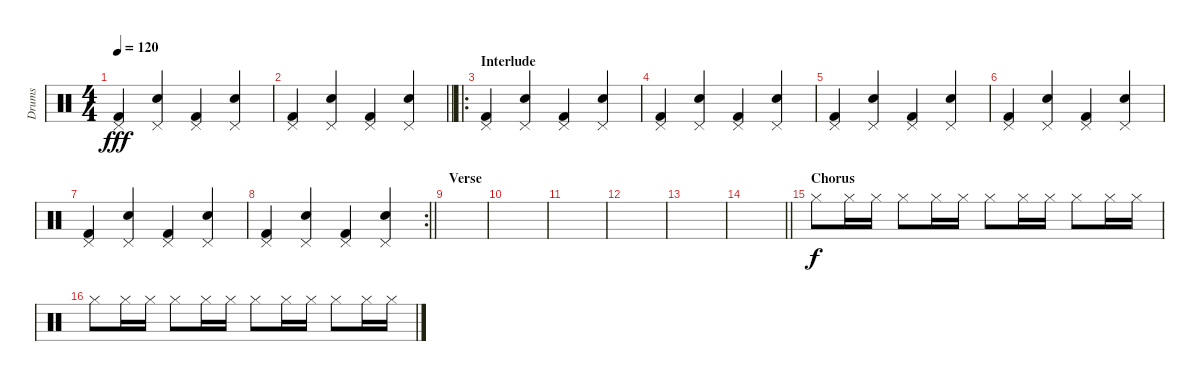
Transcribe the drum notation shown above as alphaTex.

\track ("Drums" "Drums") {instrument percussion}
\staff {score}
\articulation defaults
\ts (4 4)
\tempo 120
\clef neutral
\ks c
("Pedal Hi-Hat (hit)" "Kick (hit) 2").4{dy fff} ("Pedal Hi-Hat (hit)" "Electric Snare (hit)").4 ("Pedal Hi-Hat (hit)" "Kick (hit) 2").4 ("Pedal Hi-Hat (hit)" "Electric Snare (hit)").4 |
\barLineRight lightlight
("Pedal Hi-Hat (hit)" "Kick (hit) 2").4 ("Pedal Hi-Hat (hit)" "Electric Snare (hit)").4 ("Pedal Hi-Hat (hit)" "Kick (hit) 2").4 ("Pedal Hi-Hat (hit)" "Electric Snare (hit)").4 |
\ro
\section ("" "Interlude")
("Pedal Hi-Hat (hit)" "Kick (hit) 2").4 ("Pedal Hi-Hat (hit)" "Electric Snare (hit)").4 ("Pedal Hi-Hat (hit)" "Kick (hit) 2").4 ("Pedal Hi-Hat (hit)" "Electric Snare (hit)").4 |
("Pedal Hi-Hat (hit)" "Kick (hit) 2").4 ("Pedal Hi-Hat (hit)" "Electric Snare (hit)").4 ("Pedal Hi-Hat (hit)" "Kick (hit) 2").4 ("Pedal Hi-Hat (hit)" "Electric Snare (hit)").4 |
("Pedal Hi-Hat (hit)" "Kick (hit) 2").4 ("Pedal Hi-Hat (hit)" "Electric Snare (hit)").4 ("Pedal Hi-Hat (hit)" "Kick (hit) 2").4 ("Pedal Hi-Hat (hit)" "Electric Snare (hit)").4 |
("Pedal Hi-Hat (hit)" "Kick (hit) 2").4 ("Pedal Hi-Hat (hit)" "Electric Snare (hit)").4 ("Pedal Hi-Hat (hit)" "Kick (hit) 2").4 ("Pedal Hi-Hat (hit)" "Electric Snare (hit)").4 |
("Pedal Hi-Hat (hit)" "Kick (hit) 2").4 ("Pedal Hi-Hat (hit)" "Electric Snare (hit)").4 ("Pedal Hi-Hat (hit)" "Kick (hit) 2").4 ("Pedal Hi-Hat (hit)" "Electric Snare (hit)").4 |
\rc 2
\barLineRight lightlight
("Pedal Hi-Hat (hit)" "Kick (hit) 2").4 ("Pedal Hi-Hat (hit)" "Electric Snare (hit)").4 ("Pedal Hi-Hat (hit)" "Kick (hit) 2").4 ("Pedal Hi-Hat (hit)" "Electric Snare (hit)").4 |
\section ("" "Verse")
|
|
|
|
|
\barLineRight lightlight
|
\section ("" "Chorus")
"Hi-Hat (closed)".8{dy f} "Hi-Hat (closed)".16 "Hi-Hat (closed)".16 "Hi-Hat (closed)".8 "Hi-Hat (closed)".16 "Hi-Hat (closed)".16 "Hi-Hat (closed)".8 "Hi-Hat (closed)".16 "Hi-Hat (closed)".16 "Hi-Hat (closed)".8 "Hi-Hat (closed)".16 "Hi-Hat (closed)".16 |
"Hi-Hat (closed)".8 "Hi-Hat (closed)".16 "Hi-Hat (closed)".16 "Hi-Hat (closed)".8 "Hi-Hat (closed)".16 "Hi-Hat (closed)".16 "Hi-Hat (closed)".8 "Hi-Hat (closed)".16 "Hi-Hat (closed)".16 "Hi-Hat (closed)".8 "Hi-Hat (closed)".16 "Hi-Hat (closed)".16
